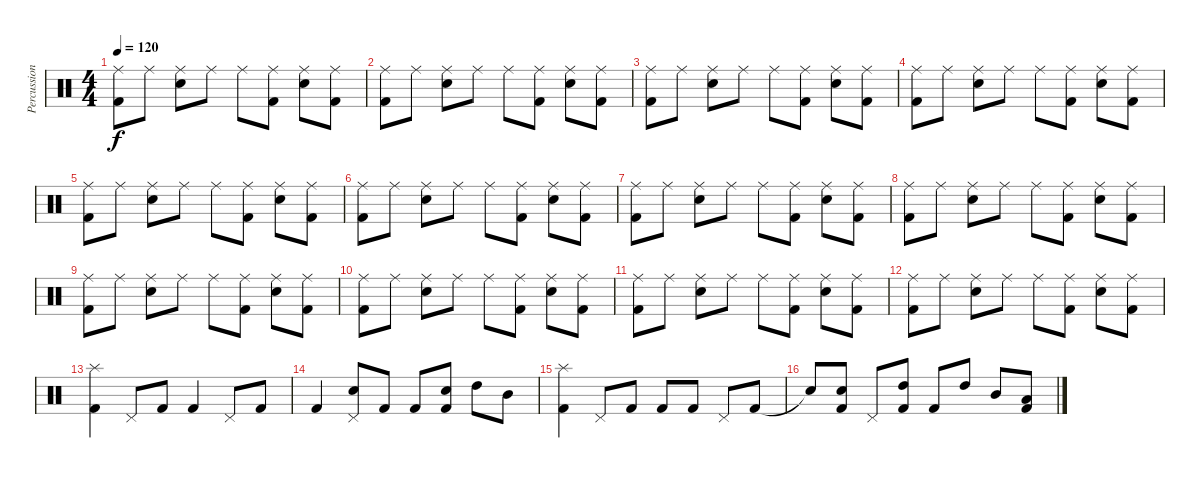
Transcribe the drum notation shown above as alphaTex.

\track ("Percussion" "Percussion") {instrument percussion}
\staff {score}
\articulation defaults
\ts (4 4)
\tempo 120
\clef neutral
\ks c
("Ride (middle)" "Kick (hit) 2").8{dy f} "Ride (middle)".8 ("Ride (middle)" "Snare (hit) 2").8 "Ride (middle)".8 "Ride (middle)".8 ("Ride (middle)" "Kick (hit) 2").8 ("Ride (middle)" "Snare (hit) 2").8 ("Ride (middle)" "Kick (hit) 2").8 |
("Ride (middle)" "Kick (hit) 2").8 "Ride (middle)".8 ("Ride (middle)" "Snare (hit) 2").8 "Ride (middle)".8 "Ride (middle)".8 ("Ride (middle)" "Kick (hit) 2").8 ("Ride (middle)" "Snare (hit) 2").8 ("Ride (middle)" "Kick (hit) 2").8 |
("Ride (middle)" "Kick (hit) 2").8 "Ride (middle)".8 ("Ride (middle)" "Snare (hit) 2").8 "Ride (middle)".8 "Ride (middle)".8 ("Ride (middle)" "Kick (hit) 2").8 ("Ride (middle)" "Snare (hit) 2").8 ("Ride (middle)" "Kick (hit) 2").8 |
("Ride (middle)" "Kick (hit) 2").8 "Ride (middle)".8 ("Ride (middle)" "Snare (hit) 2").8 "Ride (middle)".8 "Ride (middle)".8 ("Ride (middle)" "Kick (hit) 2").8 ("Ride (middle)" "Snare (hit) 2").8 ("Ride (middle)" "Kick (hit) 2").8 |
("Ride (middle)" "Kick (hit) 2").8 "Ride (middle)".8 ("Ride (middle)" "Snare (hit) 2").8 "Ride (middle)".8 "Ride (middle)".8 ("Ride (middle)" "Kick (hit) 2").8 ("Ride (middle)" "Snare (hit) 2").8 ("Ride (middle)" "Kick (hit) 2").8 |
("Ride (middle)" "Kick (hit) 2").8 "Ride (middle)".8 ("Ride (middle)" "Snare (hit) 2").8 "Ride (middle)".8 "Ride (middle)".8 ("Ride (middle)" "Kick (hit) 2").8 ("Ride (middle)" "Snare (hit) 2").8 ("Ride (middle)" "Kick (hit) 2").8 |
("Ride (middle)" "Kick (hit) 2").8 "Ride (middle)".8 ("Ride (middle)" "Snare (hit) 2").8 "Ride (middle)".8 "Ride (middle)".8 ("Ride (middle)" "Kick (hit) 2").8 ("Ride (middle)" "Snare (hit) 2").8 ("Ride (middle)" "Kick (hit) 2").8 |
("Ride (middle)" "Kick (hit) 2").8 "Ride (middle)".8 ("Ride (middle)" "Snare (hit) 2").8 "Ride (middle)".8 "Ride (middle)".8 ("Ride (middle)" "Kick (hit) 2").8 ("Ride (middle)" "Snare (hit) 2").8 ("Ride (middle)" "Kick (hit) 2").8 |
("Ride (middle)" "Kick (hit) 2").8 "Ride (middle)".8 ("Ride (middle)" "Snare (hit) 2").8 "Ride (middle)".8 "Ride (middle)".8 ("Ride (middle)" "Kick (hit) 2").8 ("Ride (middle)" "Snare (hit) 2").8 ("Ride (middle)" "Kick (hit) 2").8 |
("Ride (middle)" "Kick (hit) 2").8 "Ride (middle)".8 ("Ride (middle)" "Snare (hit) 2").8 "Ride (middle)".8 "Ride (middle)".8 ("Ride (middle)" "Kick (hit) 2").8 ("Ride (middle)" "Snare (hit) 2").8 ("Ride (middle)" "Kick (hit) 2").8 |
("Ride (middle)" "Kick (hit) 2").8 "Ride (middle)".8 ("Ride (middle)" "Snare (hit) 2").8 "Ride (middle)".8 "Ride (middle)".8 ("Ride (middle)" "Kick (hit) 2").8 ("Ride (middle)" "Snare (hit) 2").8 ("Ride (middle)" "Kick (hit) 2").8 |
("Ride (middle)" "Kick (hit) 2").8 "Ride (middle)".8 ("Ride (middle)" "Snare (hit) 2").8 "Ride (middle)".8 "Ride (middle)".8 ("Ride (middle)" "Kick (hit) 2").8 ("Ride (middle)" "Snare (hit) 2").8 ("Ride (middle)" "Kick (hit) 2").8 |
("Splash (hit)" "Kick (hit) 2").4 "Pedal Hi-Hat (hit)".8 "Kick (hit) 2".8 "Kick (hit) 2".4 "Pedal Hi-Hat (hit)".8 "Kick (hit) 2".8 |
"Kick (hit) 2".4 ("Pedal Hi-Hat (hit)" "Snare (hit) 2").8 "Kick (hit) 2".8 "Kick (hit) 2".8 ("Snare (hit) 2" "Kick (hit) 2").8 "High Tom (hit)".8 "Mid Tom (hit)".8 |
("Splash (hit)" "Kick (hit) 2").4 "Pedal Hi-Hat (hit)".8 "Kick (hit) 2".8 "Kick (hit) 2".8 "Kick (hit) 2".8 "Pedal Hi-Hat (hit)".8 "Kick (hit) 2".8 |
"Snare (hit)"{t}.8 ("Snare (hit) 2" "Kick (hit) 2").8 "Pedal Hi-Hat (hit)".8 ("High Tom (hit)" "Kick (hit) 2").8 "Kick (hit) 2".8 "High Tom (hit)".8 "Mid Tom (hit)".8 ("Low Tom (hit)" "Kick (hit) 2").8
